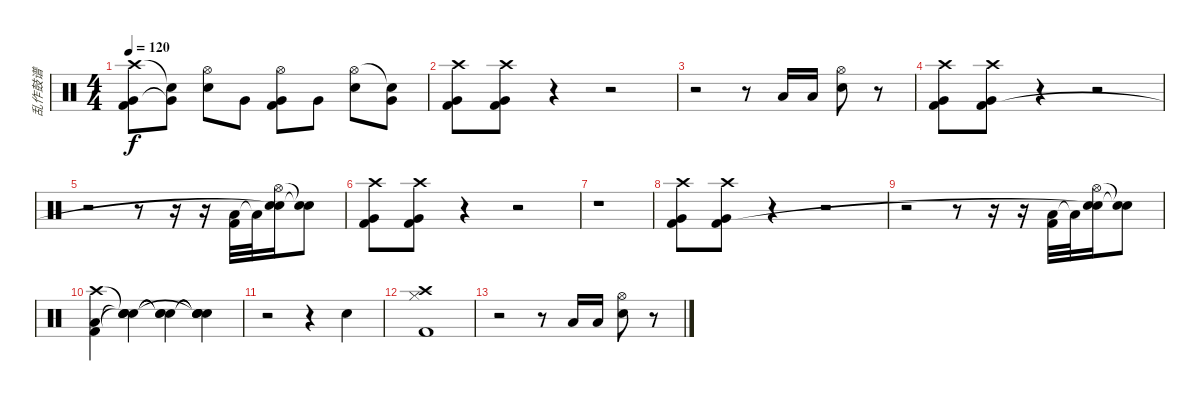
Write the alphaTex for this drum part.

\track ("乱作鼓谱" "乱作鼓谱") {instrument percussion}
\staff {score}
\articulation defaults
\ts (4 4)
\tempo 120
\clef neutral
\ks c
("Crash high (hit)" "Very Low Tom (hit)" "Kick (hit) 2").8{dy f} ("Snare (hit)"{t} "Very Low Tom (hit)"{t}).8 ("Hi-Hat (open)" "Snare (hit) 2").8 "Very Low Tom (hit)".8 ("Hi-Hat (open)" "Very Low Tom (hit)" "Kick (hit) 2").8 "Very Low Tom (hit)".8 ("Hi-Hat (open)" "Snare (hit) 2").8 ("Snare (hit)"{t} "Very Low Tom (hit)").8 |
("Crash high (hit)" "Very Low Tom (hit)" "Kick (hit) 2").8 ("Crash high (hit)" "Very Low Tom (hit)" "Kick (hit) 2").8 r.4 r.2 |
r.2 r.8 "Low Floor Tom (hit)".16 "Low Floor Tom (hit)".16 ("Hi-Hat (open)" "Snare (hit) 2").8 r.8 |
("Crash high (hit)" "Very Low Tom (hit)" "Kick (hit) 2").8 ("Crash high (hit)" "Very Low Tom (hit)" "Kick (hit) 2").8 r.4 r.2 |
r.2 r.8 r.16 r.16 ("Low Floor Tom (hit)" "Kick (hit) 2").32 "Low Floor Tom (hit)"{t}.32 ("Hi-Hat (open)" "Snare (hit) 2" "Snare (hit)"{t}).16 ("Snare (hit)"{t} "Snare (hit)"{t}).8 |
("Crash high (hit)" "Very Low Tom (hit)" "Kick (hit) 2").8 ("Crash high (hit)" "Very Low Tom (hit)" "Kick (hit) 2").8 r.4 r.2 |
r.1 |
("Crash high (hit)" "Very Low Tom (hit)" "Kick (hit) 2").8 ("Crash high (hit)" "Very Low Tom (hit)" "Kick (hit) 2").8 r.4 r.2 |
r.2 r.8 r.16 r.16 ("Low Floor Tom (hit)" "Kick (hit) 2").32 "Low Floor Tom (hit)"{t}.32 ("Hi-Hat (open)" "Snare (hit) 2" "Snare (hit)"{t}).16 ("Snare (hit)"{t} "Snare (hit)"{t}).8 |
("Crash high (hit)" "Low Floor Tom (hit)" "Kick (hit) 2").4 ("Snare (hit)"{t} "Snare (hit)"{t} "Snare (hit)"{t} "Snare (hit)").4 ("Snare (hit)"{t} "Snare (hit)"{t} "Snare (hit)"{t}).4 ("Snare (hit)"{t} "Snare (hit)"{t} "Snare (hit)"{t} "Snare (hit)"{t}).4 |
r.2 r.4 "Snare (hit) 2".4 |
("Crash high (hit)" "Hi-Hat (closed)" "Kick (hit) 2").1 |
r.2 r.8 "Low Floor Tom (hit)".16 "Low Floor Tom (hit)".16 ("Hi-Hat (open)" "Snare (hit) 2").8 r.8
